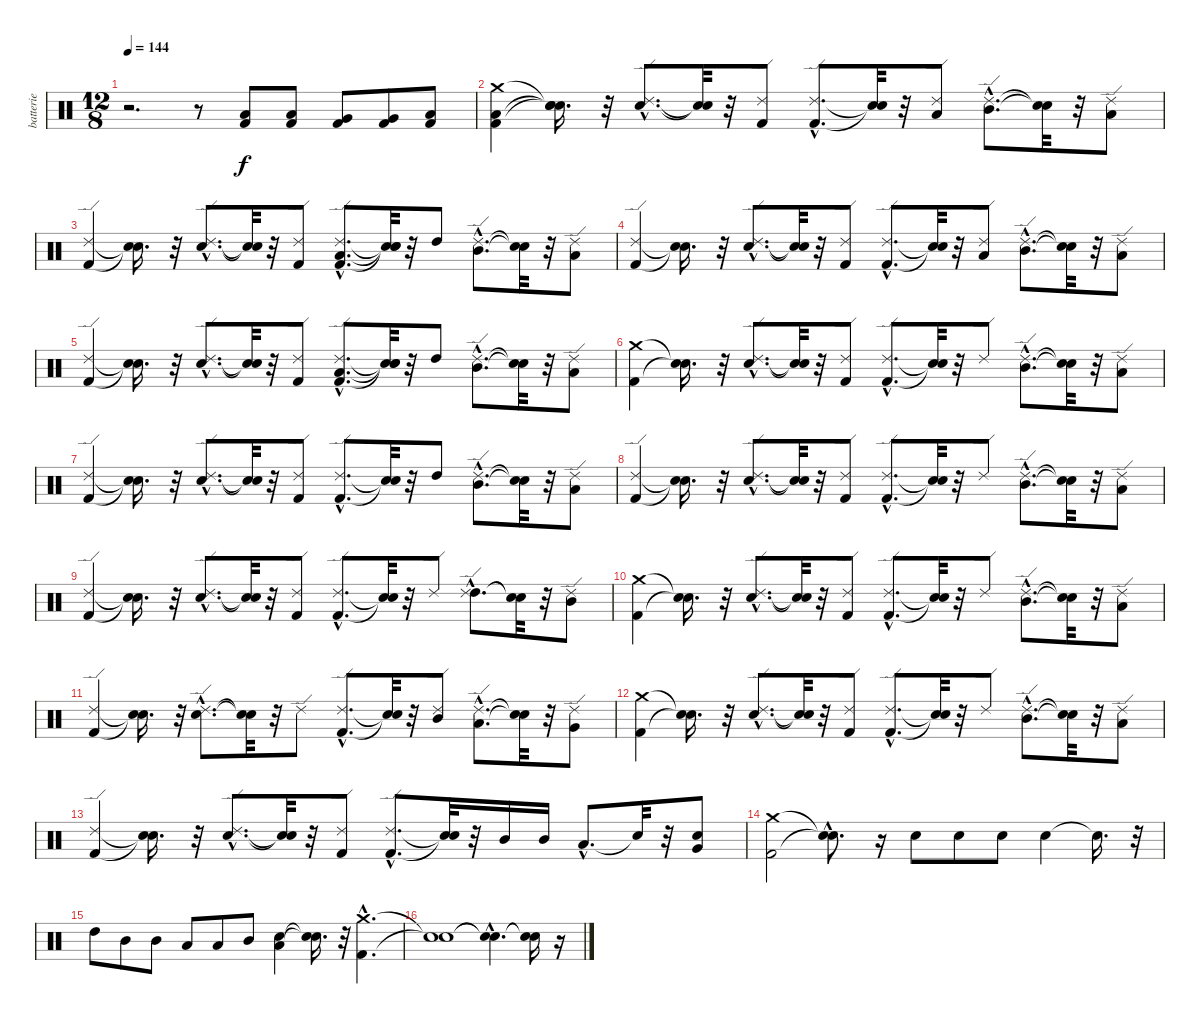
\track ("batterie" "batterie") {instrument percussion}
\staff {score}
\articulation defaults
\ts (12 8)
\tempo 144
\clef neutral
\ks c
r.2{d dy f} r.8 ("Kick (hit) 2" "Low Tom (hit)").8 ("Kick (hit) 2" "Low Tom (hit)").8 ("Kick (hit) 2" "Very Low Tom (hit)").8 ("Kick (hit) 2" "Very Low Tom (hit)").8 ("Kick (hit) 2" "Low Floor Tom (hit)").8 |
("Kick (hit) 2" "Low Floor Tom (hit)" "Crash medium (hit)").4 ("Snare (hit)"{t} "Snare (hit)"{t} "Snare (hit)"{t}).16{d} r.32 ("Electric Snare (hit)"{hac} "Ride (edge) 2"{hac}).8{d} ("Snare (hit)"{t} "Snare (hit)"{t}).32 r.32 ("Kick (hit) 2" "Ride (edge) 2").8 ("Kick (hit) 2"{hac} "Ride (edge) 2"{hac}).8{d} ("Snare (hit)"{t} "Snare (hit)"{t}).32 r.32 ("Low Tom (hit)" "Ride (edge) 2").8 ("Mid Tom (hit)"{hac} "Ride (edge) 2"{hac}).8{d} ("Snare (hit)"{t} "Snare (hit)"{t}).32 r.32 ("Low Tom (hit)" "Ride (edge) 2").8 |
("Kick (hit) 2" "Ride (edge) 2").4 ("Snare (hit)"{t} "Snare (hit)"{t}).16{d} r.32 ("Electric Snare (hit)"{hac} "Ride (edge) 2"{hac}).8{d} ("Snare (hit)"{t} "Snare (hit)"{t}).32 r.32 ("Kick (hit) 2" "Ride (edge) 2").8 ("Kick (hit) 2"{hac} "Low Tom (hit)"{hac} "Ride (edge) 2"{hac}).8{d} ("Snare (hit)"{t} "Snare (hit)"{t} "Snare (hit)"{t}).32 r.32 "High Tom (hit)".8 ("Mid Tom (hit)"{hac} "Ride (edge) 2"{hac}).8{d} ("Snare (hit)"{t} "Snare (hit)"{t}).32 r.32 ("Low Tom (hit)" "Ride (edge) 2").8 |
("Kick (hit) 2" "Ride (edge) 2").4 ("Snare (hit)"{t} "Snare (hit)"{t}).16{d} r.32 ("Electric Snare (hit)"{hac} "Ride (edge) 2"{hac}).8{d} ("Snare (hit)"{t} "Snare (hit)"{t}).32 r.32 ("Kick (hit) 2" "Ride (edge) 2").8 ("Kick (hit) 2"{hac} "Ride (edge) 2"{hac}).8{d} ("Snare (hit)"{t} "Snare (hit)"{t}).32 r.32 ("Low Tom (hit)" "Ride (edge) 2").8 ("Mid Tom (hit)"{hac} "Ride (edge) 2"{hac}).8{d} ("Snare (hit)"{t} "Snare (hit)"{t}).32 r.32 ("Low Tom (hit)" "Ride (edge) 2").8 |
("Kick (hit) 2" "Ride (edge) 2").4 ("Snare (hit)"{t} "Snare (hit)"{t}).16{d} r.32 ("Electric Snare (hit)"{hac} "Ride (edge) 2"{hac}).8{d} ("Snare (hit)"{t} "Snare (hit)"{t}).32 r.32 ("Kick (hit) 2" "Ride (edge) 2").8 ("Kick (hit) 2"{hac} "Low Tom (hit)"{hac} "Ride (edge) 2"{hac}).8{d} ("Snare (hit)"{t} "Snare (hit)"{t} "Snare (hit)"{t}).32 r.32 "High Tom (hit)".8 ("Mid Tom (hit)"{hac} "Ride (edge) 2"{hac}).8{d} ("Snare (hit)"{t} "Snare (hit)"{t}).32 r.32 ("Low Tom (hit)" "Ride (edge) 2").8 |
("Kick (hit) 2" "Crash medium (hit)").4 ("Snare (hit)"{t} "Snare (hit)"{t}).16{d} r.32 ("Electric Snare (hit)"{hac} "Ride (edge) 2"{hac}).8{d} ("Snare (hit)"{t} "Snare (hit)"{t}).32 r.32 ("Kick (hit) 2" "Ride (edge) 2").8 ("Kick (hit) 2"{hac} "Ride (edge) 2"{hac}).8{d} ("Snare (hit)"{t} "Snare (hit)"{t}).32 r.32 "Ride (edge) 2".8 ("Mid Tom (hit)"{hac} "Ride (edge) 2"{hac}).8{d} ("Snare (hit)"{t} "Snare (hit)"{t}).32 r.32 ("Low Tom (hit)" "Ride (edge) 2").8 |
("Kick (hit) 2" "Ride (edge) 2").4 ("Snare (hit)"{t} "Snare (hit)"{t}).16{d} r.32 ("Electric Snare (hit)"{hac} "Ride (edge) 2"{hac}).8{d} ("Snare (hit)"{t} "Snare (hit)"{t}).32 r.32 ("Kick (hit) 2" "Ride (edge) 2").8 ("Kick (hit) 2"{hac} "Ride (edge) 2"{hac}).8{d} ("Snare (hit)"{t} "Snare (hit)"{t}).32 r.32 "High Tom (hit)".8 ("Mid Tom (hit)"{hac} "Ride (edge) 2"{hac}).8{d} ("Snare (hit)"{t} "Snare (hit)"{t}).32 r.32 ("Low Tom (hit)" "Ride (edge) 2").8 |
("Kick (hit) 2" "Ride (edge) 2").4 ("Snare (hit)"{t} "Snare (hit)"{t}).16{d} r.32 ("Electric Snare (hit)"{hac} "Ride (edge) 2"{hac}).8{d} ("Snare (hit)"{t} "Snare (hit)"{t}).32 r.32 ("Kick (hit) 2" "Ride (edge) 2").8 ("Kick (hit) 2"{hac} "Ride (edge) 2"{hac}).8{d} ("Snare (hit)"{t} "Snare (hit)"{t}).32 r.32 "Ride (edge) 2".8 ("Mid Tom (hit)"{hac} "Ride (edge) 2"{hac}).8{d} ("Snare (hit)"{t} "Snare (hit)"{t}).32 r.32 ("Low Tom (hit)" "Ride (edge) 2").8 |
("Kick (hit) 2" "Ride (edge) 2").4 ("Snare (hit)"{t} "Snare (hit)"{t}).16{d} r.32 ("Electric Snare (hit)"{hac} "Ride (edge) 2"{hac}).8{d} ("Snare (hit)"{t} "Snare (hit)"{t}).32 r.32 ("Kick (hit) 2" "Ride (edge) 2").8 ("Kick (hit) 2"{hac} "Ride (edge) 2"{hac}).8{d} ("Snare (hit)"{t} "Snare (hit)"{t}).32 r.32 "Ride (edge) 2".8 ("High Tom (hit)"{hac} "Ride (edge) 2"{hac}).8{d} ("Snare (hit)"{t} "Snare (hit)"{t}).32 r.32 ("Mid Tom (hit)" "Ride (edge) 2").8 |
("Kick (hit) 2" "Crash medium (hit)").4 ("Snare (hit)"{t} "Snare (hit)"{t}).16{d} r.32 ("Electric Snare (hit)"{hac} "Ride (edge) 2"{hac}).8{d} ("Snare (hit)"{t} "Snare (hit)"{t}).32 r.32 ("Kick (hit) 2" "Ride (edge) 2").8 ("Kick (hit) 2"{hac} "Ride (edge) 2"{hac}).8{d} ("Snare (hit)"{t} "Snare (hit)"{t}).32 r.32 "Ride (edge) 2".8 ("Mid Tom (hit)"{hac} "Ride (edge) 2"{hac}).8{d} ("Snare (hit)"{t} "Snare (hit)"{t}).32 r.32 ("Low Tom (hit)" "Ride (edge) 2").8 |
("Kick (hit) 2" "Ride (edge) 2").4 ("Snare (hit)"{t} "Snare (hit)"{t}).16{d} r.32 ("Electric Snare (hit)"{hac} "Ride (edge) 2"{hac}).8{d} ("Snare (hit)"{t} "Snare (hit)"{t}).32 r.32 "Ride (edge) 2".8 ("Kick (hit) 2"{hac} "Ride (edge) 2"{hac}).8{d} ("Snare (hit)"{t} "Snare (hit)"{t}).32 r.32 ("Mid Tom (hit)" "Ride (edge) 2").8 ("Low Tom (hit)"{hac} "Ride (edge) 2"{hac}).8{d} ("Snare (hit)"{t} "Snare (hit)"{t}).32 r.32 ("Very Low Tom (hit)" "Ride (edge) 2").8 |
("Kick (hit) 2" "Crash medium (hit)").4 ("Snare (hit)"{t} "Snare (hit)"{t}).16{d} r.32 ("Electric Snare (hit)"{hac} "Ride (edge) 2"{hac}).8{d} ("Snare (hit)"{t} "Snare (hit)"{t}).32 r.32 ("Kick (hit) 2" "Ride (edge) 2").8 ("Kick (hit) 2"{hac} "Ride (edge) 2"{hac}).8{d} ("Snare (hit)"{t} "Snare (hit)"{t}).32 r.32 "Ride (edge) 2".8 ("Mid Tom (hit)"{hac} "Ride (edge) 2"{hac}).8{d} ("Snare (hit)"{t} "Snare (hit)"{t}).32 r.32 ("Low Tom (hit)" "Ride (edge) 2").8 |
("Kick (hit) 2" "Ride (edge) 2").4 ("Snare (hit)"{t} "Snare (hit)"{t}).16{d} r.32 ("Electric Snare (hit)"{hac} "Ride (edge) 2"{hac}).8{d} ("Snare (hit)"{t} "Snare (hit)"{t}).32 r.32 ("Kick (hit) 2" "Ride (edge) 2").8 ("Kick (hit) 2"{hac} "Ride (edge) 2"{hac}).8{d} ("Snare (hit)"{t} "Snare (hit)"{t}).32 r.32 "Mid Tom (hit)".16 "Mid Tom (hit)".16 "Low Tom (hit)"{hac}.8{d} "Snare (hit)"{t}.32 r.32 ("Electric Snare (hit)" "Very Low Tom (hit)").8 |
("Kick (hit) 2" "Crash medium (hit)").2 ("Snare (hit)"{hac t} "Snare (hit)"{hac t}).8{d} r.16 "Electric Snare (hit)".8 "Electric Snare (hit)".8 "Electric Snare (hit)".8 "Electric Snare (hit)".4 "Snare (hit)"{t}.16{d} r.32 |
"High Tom (hit)".8 "Mid Tom (hit)".8 "Mid Tom (hit)".8 "Low Tom (hit)".8 "Low Tom (hit)".8 "Mid Tom (hit)".8 ("Electric Snare (hit)" "Low Tom (hit)").4 ("Snare (hit)"{t} "Snare (hit)"{t}).16{d} r.32 ("Kick (hit) 2"{hac} "Crash medium (hit)"{hac}).4{d} |
("Snare (hit)"{t} "Snare (hit)"{t}).1 ("Snare (hit)"{hac t} "Snare (hit)"{hac t}).4{d} ("Snare (hit)"{t} "Snare (hit)"{t}).16 r.16
